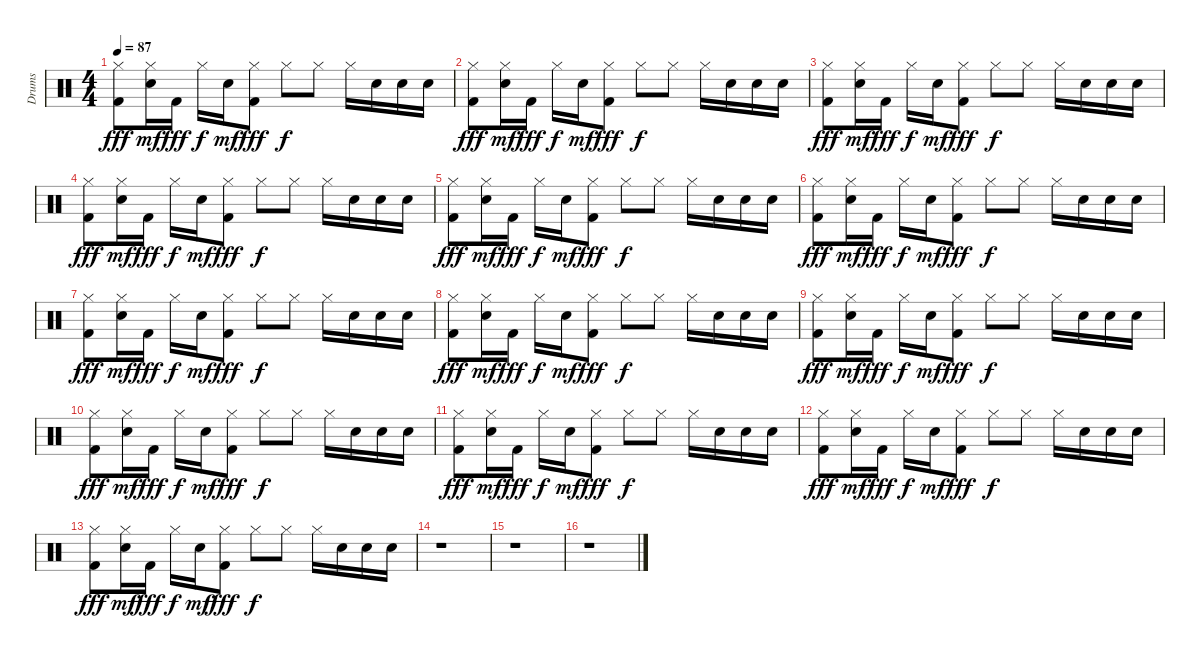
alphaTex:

\track ("Drums" "Drums") {instrument percussion}
\staff {score}
\articulation defaults
\ts (4 4)
\tempo 87
\clef neutral
\ks c
("Hi-Hat (closed)" "Kick (hit) 2").8{dy fff} ("Hi-Hat (closed)" "Snare (hit) 2").16{dy mf} "Kick (hit) 2".16{dy fff} "Hi-Hat (closed)".16{dy f} "Snare (hit) 2".16{dy mf} ("Hi-Hat (closed)" "Kick (hit) 2").8{dy fff} "Hi-Hat (closed)".8{dy f} "Hi-Hat (closed)".8 "Hi-Hat (closed)".16 "Snare (hit) 2".16 "Snare (hit) 2".16 "Snare (hit) 2".16 |
("Hi-Hat (closed)" "Kick (hit) 2").8{dy fff} ("Hi-Hat (closed)" "Snare (hit) 2").16{dy mf} "Kick (hit) 2".16{dy fff} "Hi-Hat (closed)".16{dy f} "Snare (hit) 2".16{dy mf} ("Hi-Hat (closed)" "Kick (hit) 2").8{dy fff} "Hi-Hat (closed)".8{dy f} "Hi-Hat (closed)".8 "Hi-Hat (closed)".16 "Snare (hit) 2".16 "Snare (hit) 2".16 "Snare (hit) 2".16 |
("Hi-Hat (closed)" "Kick (hit) 2").8{dy fff} ("Hi-Hat (closed)" "Snare (hit) 2").16{dy mf} "Kick (hit) 2".16{dy fff} "Hi-Hat (closed)".16{dy f} "Snare (hit) 2".16{dy mf} ("Hi-Hat (closed)" "Kick (hit) 2").8{dy fff} "Hi-Hat (closed)".8{dy f} "Hi-Hat (closed)".8 "Hi-Hat (closed)".16 "Snare (hit) 2".16 "Snare (hit) 2".16 "Snare (hit) 2".16 |
("Hi-Hat (closed)" "Kick (hit) 2").8{dy fff} ("Hi-Hat (closed)" "Snare (hit) 2").16{dy mf} "Kick (hit) 2".16{dy fff} "Hi-Hat (closed)".16{dy f} "Snare (hit) 2".16{dy mf} ("Hi-Hat (closed)" "Kick (hit) 2").8{dy fff} "Hi-Hat (closed)".8{dy f} "Hi-Hat (closed)".8 "Hi-Hat (closed)".16 "Snare (hit) 2".16 "Snare (hit) 2".16 "Snare (hit) 2".16 |
("Hi-Hat (closed)" "Kick (hit) 2").8{dy fff} ("Hi-Hat (closed)" "Snare (hit) 2").16{dy mf} "Kick (hit) 2".16{dy fff} "Hi-Hat (closed)".16{dy f} "Snare (hit) 2".16{dy mf} ("Hi-Hat (closed)" "Kick (hit) 2").8{dy fff} "Hi-Hat (closed)".8{dy f} "Hi-Hat (closed)".8 "Hi-Hat (closed)".16 "Snare (hit) 2".16 "Snare (hit) 2".16 "Snare (hit) 2".16 |
("Hi-Hat (closed)" "Kick (hit) 2").8{dy fff} ("Hi-Hat (closed)" "Snare (hit) 2").16{dy mf} "Kick (hit) 2".16{dy fff} "Hi-Hat (closed)".16{dy f} "Snare (hit) 2".16{dy mf} ("Hi-Hat (closed)" "Kick (hit) 2").8{dy fff} "Hi-Hat (closed)".8{dy f} "Hi-Hat (closed)".8 "Hi-Hat (closed)".16 "Snare (hit) 2".16 "Snare (hit) 2".16 "Snare (hit) 2".16 |
("Hi-Hat (closed)" "Kick (hit) 2").8{dy fff} ("Hi-Hat (closed)" "Snare (hit) 2").16{dy mf} "Kick (hit) 2".16{dy fff} "Hi-Hat (closed)".16{dy f} "Snare (hit) 2".16{dy mf} ("Hi-Hat (closed)" "Kick (hit) 2").8{dy fff} "Hi-Hat (closed)".8{dy f} "Hi-Hat (closed)".8 "Hi-Hat (closed)".16 "Snare (hit) 2".16 "Snare (hit) 2".16 "Snare (hit) 2".16 |
("Hi-Hat (closed)" "Kick (hit) 2").8{dy fff} ("Hi-Hat (closed)" "Snare (hit) 2").16{dy mf} "Kick (hit) 2".16{dy fff} "Hi-Hat (closed)".16{dy f} "Snare (hit) 2".16{dy mf} ("Hi-Hat (closed)" "Kick (hit) 2").8{dy fff} "Hi-Hat (closed)".8{dy f} "Hi-Hat (closed)".8 "Hi-Hat (closed)".16 "Snare (hit) 2".16 "Snare (hit) 2".16 "Snare (hit) 2".16 |
("Hi-Hat (closed)" "Kick (hit) 2").8{dy fff} ("Hi-Hat (closed)" "Snare (hit) 2").16{dy mf} "Kick (hit) 2".16{dy fff} "Hi-Hat (closed)".16{dy f} "Snare (hit) 2".16{dy mf} ("Hi-Hat (closed)" "Kick (hit) 2").8{dy fff} "Hi-Hat (closed)".8{dy f} "Hi-Hat (closed)".8 "Hi-Hat (closed)".16 "Snare (hit) 2".16 "Snare (hit) 2".16 "Snare (hit) 2".16 |
("Hi-Hat (closed)" "Kick (hit) 2").8{dy fff} ("Hi-Hat (closed)" "Snare (hit) 2").16{dy mf} "Kick (hit) 2".16{dy fff} "Hi-Hat (closed)".16{dy f} "Snare (hit) 2".16{dy mf} ("Hi-Hat (closed)" "Kick (hit) 2").8{dy fff} "Hi-Hat (closed)".8{dy f} "Hi-Hat (closed)".8 "Hi-Hat (closed)".16 "Snare (hit) 2".16 "Snare (hit) 2".16 "Snare (hit) 2".16 |
("Hi-Hat (closed)" "Kick (hit) 2").8{dy fff} ("Hi-Hat (closed)" "Snare (hit) 2").16{dy mf} "Kick (hit) 2".16{dy fff} "Hi-Hat (closed)".16{dy f} "Snare (hit) 2".16{dy mf} ("Hi-Hat (closed)" "Kick (hit) 2").8{dy fff} "Hi-Hat (closed)".8{dy f} "Hi-Hat (closed)".8 "Hi-Hat (closed)".16 "Snare (hit) 2".16 "Snare (hit) 2".16 "Snare (hit) 2".16 |
("Hi-Hat (closed)" "Kick (hit) 2").8{dy fff} ("Hi-Hat (closed)" "Snare (hit) 2").16{dy mf} "Kick (hit) 2".16{dy fff} "Hi-Hat (closed)".16{dy f} "Snare (hit) 2".16{dy mf} ("Hi-Hat (closed)" "Kick (hit) 2").8{dy fff} "Hi-Hat (closed)".8{dy f} "Hi-Hat (closed)".8 "Hi-Hat (closed)".16 "Snare (hit) 2".16 "Snare (hit) 2".16 "Snare (hit) 2".16 |
("Hi-Hat (closed)" "Kick (hit) 2").8{dy fff} ("Hi-Hat (closed)" "Snare (hit) 2").16{dy mf} "Kick (hit) 2".16{dy fff} "Hi-Hat (closed)".16{dy f} "Snare (hit) 2".16{dy mf} ("Hi-Hat (closed)" "Kick (hit) 2").8{dy fff} "Hi-Hat (closed)".8{dy f} "Hi-Hat (closed)".8 "Hi-Hat (closed)".16 "Snare (hit) 2".16 "Snare (hit) 2".16 "Snare (hit) 2".16 |
r.1 |
r.1 |
r.1
